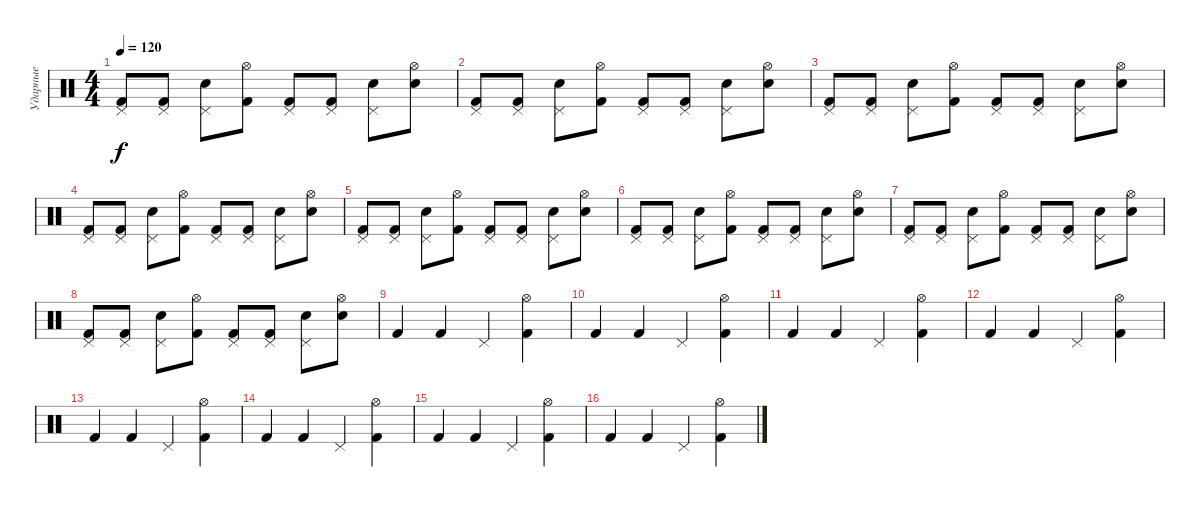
\track ("Ударные" "Ударные") {instrument percussion}
\staff {score}
\articulation defaults
\ts (4 4)
\tempo 120
\clef neutral
\ks c
("Kick (hit) 2" "Pedal Hi-Hat (hit)").8{dy f} ("Kick (hit) 2" "Pedal Hi-Hat (hit)").8 ("Snare (hit) 2" "Pedal Hi-Hat (hit)").8 ("Kick (hit) 2" "Hi-Hat (open)").8 ("Kick (hit) 2" "Pedal Hi-Hat (hit)").8 ("Kick (hit) 2" "Pedal Hi-Hat (hit)").8 ("Snare (hit) 2" "Pedal Hi-Hat (hit)").8 ("Snare (hit) 2" "Hi-Hat (open)").8 |
("Kick (hit) 2" "Pedal Hi-Hat (hit)").8 ("Kick (hit) 2" "Pedal Hi-Hat (hit)").8 ("Snare (hit) 2" "Pedal Hi-Hat (hit)").8 ("Kick (hit) 2" "Hi-Hat (open)").8 ("Kick (hit) 2" "Pedal Hi-Hat (hit)").8 ("Kick (hit) 2" "Pedal Hi-Hat (hit)").8 ("Snare (hit) 2" "Pedal Hi-Hat (hit)").8 ("Snare (hit) 2" "Hi-Hat (open)").8 |
("Kick (hit) 2" "Pedal Hi-Hat (hit)").8 ("Kick (hit) 2" "Pedal Hi-Hat (hit)").8 ("Snare (hit) 2" "Pedal Hi-Hat (hit)").8 ("Kick (hit) 2" "Hi-Hat (open)").8 ("Kick (hit) 2" "Pedal Hi-Hat (hit)").8 ("Kick (hit) 2" "Pedal Hi-Hat (hit)").8 ("Snare (hit) 2" "Pedal Hi-Hat (hit)").8 ("Snare (hit) 2" "Hi-Hat (open)").8 |
("Kick (hit) 2" "Pedal Hi-Hat (hit)").8 ("Kick (hit) 2" "Pedal Hi-Hat (hit)").8 ("Snare (hit) 2" "Pedal Hi-Hat (hit)").8 ("Kick (hit) 2" "Hi-Hat (open)").8 ("Kick (hit) 2" "Pedal Hi-Hat (hit)").8 ("Kick (hit) 2" "Pedal Hi-Hat (hit)").8 ("Snare (hit) 2" "Pedal Hi-Hat (hit)").8 ("Snare (hit) 2" "Hi-Hat (open)").8 |
("Kick (hit) 2" "Pedal Hi-Hat (hit)").8 ("Kick (hit) 2" "Pedal Hi-Hat (hit)").8 ("Snare (hit) 2" "Pedal Hi-Hat (hit)").8 ("Kick (hit) 2" "Hi-Hat (open)").8 ("Kick (hit) 2" "Pedal Hi-Hat (hit)").8 ("Kick (hit) 2" "Pedal Hi-Hat (hit)").8 ("Snare (hit) 2" "Pedal Hi-Hat (hit)").8 ("Snare (hit) 2" "Hi-Hat (open)").8 |
("Kick (hit) 2" "Pedal Hi-Hat (hit)").8 ("Kick (hit) 2" "Pedal Hi-Hat (hit)").8 ("Snare (hit) 2" "Pedal Hi-Hat (hit)").8 ("Kick (hit) 2" "Hi-Hat (open)").8 ("Kick (hit) 2" "Pedal Hi-Hat (hit)").8 ("Kick (hit) 2" "Pedal Hi-Hat (hit)").8 ("Snare (hit) 2" "Pedal Hi-Hat (hit)").8 ("Snare (hit) 2" "Hi-Hat (open)").8 |
("Kick (hit) 2" "Pedal Hi-Hat (hit)").8 ("Kick (hit) 2" "Pedal Hi-Hat (hit)").8 ("Snare (hit) 2" "Pedal Hi-Hat (hit)").8 ("Kick (hit) 2" "Hi-Hat (open)").8 ("Kick (hit) 2" "Pedal Hi-Hat (hit)").8 ("Kick (hit) 2" "Pedal Hi-Hat (hit)").8 ("Snare (hit) 2" "Pedal Hi-Hat (hit)").8 ("Snare (hit) 2" "Hi-Hat (open)").8 |
("Kick (hit) 2" "Pedal Hi-Hat (hit)").8 ("Kick (hit) 2" "Pedal Hi-Hat (hit)").8 ("Snare (hit) 2" "Pedal Hi-Hat (hit)").8 ("Kick (hit) 2" "Hi-Hat (open)").8 ("Kick (hit) 2" "Pedal Hi-Hat (hit)").8 ("Kick (hit) 2" "Pedal Hi-Hat (hit)").8 ("Snare (hit) 2" "Pedal Hi-Hat (hit)").8 ("Snare (hit) 2" "Hi-Hat (open)").8 |
"Kick (hit) 2".4 "Kick (hit) 2".4 "Pedal Hi-Hat (hit)".4 ("Kick (hit) 2" "Hi-Hat (open)").4 |
"Kick (hit) 2".4 "Kick (hit) 2".4 "Pedal Hi-Hat (hit)".4 ("Kick (hit) 2" "Hi-Hat (open)").4 |
"Kick (hit) 2".4 "Kick (hit) 2".4 "Pedal Hi-Hat (hit)".4 ("Kick (hit) 2" "Hi-Hat (open)").4 |
"Kick (hit) 2".4 "Kick (hit) 2".4 "Pedal Hi-Hat (hit)".4 ("Kick (hit) 2" "Hi-Hat (open)").4 |
"Kick (hit) 2".4 "Kick (hit) 2".4 "Pedal Hi-Hat (hit)".4 ("Kick (hit) 2" "Hi-Hat (open)").4 |
"Kick (hit) 2".4 "Kick (hit) 2".4 "Pedal Hi-Hat (hit)".4 ("Kick (hit) 2" "Hi-Hat (open)").4 |
"Kick (hit) 2".4 "Kick (hit) 2".4 "Pedal Hi-Hat (hit)".4 ("Kick (hit) 2" "Hi-Hat (open)").4 |
"Kick (hit) 2".4 "Kick (hit) 2".4 "Pedal Hi-Hat (hit)".4 ("Kick (hit) 2" "Hi-Hat (open)").4
